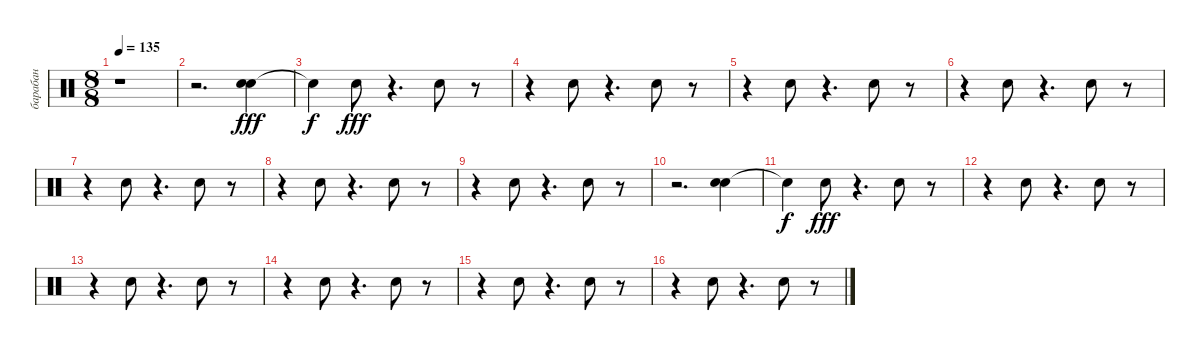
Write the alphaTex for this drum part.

\track ("барабан" "барабан") {instrument percussion}
\staff {score}
\articulation defaults
\ts (8 8)
\tempo 135
\clef neutral
\ks c
r.1{dy fff} |
r.2{d} ("Snare (hit) 2" "Snare (hit) 2").4 |
"Snare (hit)"{t}.4{dy f} "Snare (hit) 2".8{dy fff} r.4{d} "Snare (hit) 2".8 r.8 |
r.4 "Snare (hit) 2".8 r.4{d} "Snare (hit) 2".8 r.8 |
r.4 "Snare (hit) 2".8 r.4{d} "Snare (hit) 2".8 r.8 |
r.4 "Snare (hit) 2".8 r.4{d} "Snare (hit) 2".8 r.8 |
r.4 "Snare (hit) 2".8 r.4{d} "Snare (hit) 2".8 r.8 |
r.4 "Snare (hit) 2".8 r.4{d} "Snare (hit) 2".8 r.8 |
r.4 "Snare (hit) 2".8 r.4{d} "Snare (hit) 2".8 r.8 |
r.2{d} ("Snare (hit) 2" "Snare (hit) 2").4 |
"Snare (hit)"{t}.4{dy f} "Snare (hit) 2".8{dy fff} r.4{d} "Snare (hit) 2".8 r.8 |
r.4 "Snare (hit) 2".8 r.4{d} "Snare (hit) 2".8 r.8 |
r.4 "Snare (hit) 2".8 r.4{d} "Snare (hit) 2".8 r.8 |
r.4 "Snare (hit) 2".8 r.4{d} "Snare (hit) 2".8 r.8 |
r.4 "Snare (hit) 2".8 r.4{d} "Snare (hit) 2".8 r.8 |
r.4 "Snare (hit) 2".8 r.4{d} "Snare (hit) 2".8 r.8
